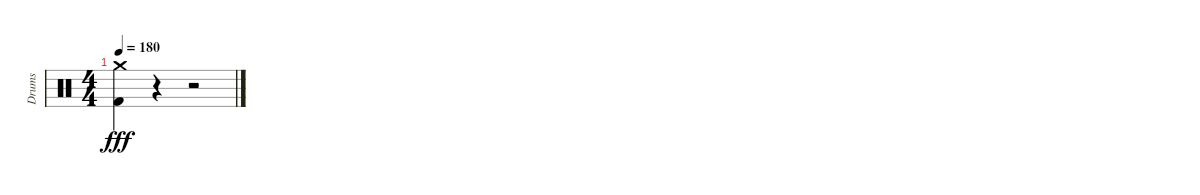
\track ("Drums" "Drums") {instrument percussion}
\staff {score}
\articulation defaults
\ts (4 4)
\tempo 180
\clef neutral
\ks c
("Crash medium (hit)" "Kick (hit) 2").4{dy fff} r.4 r.2
